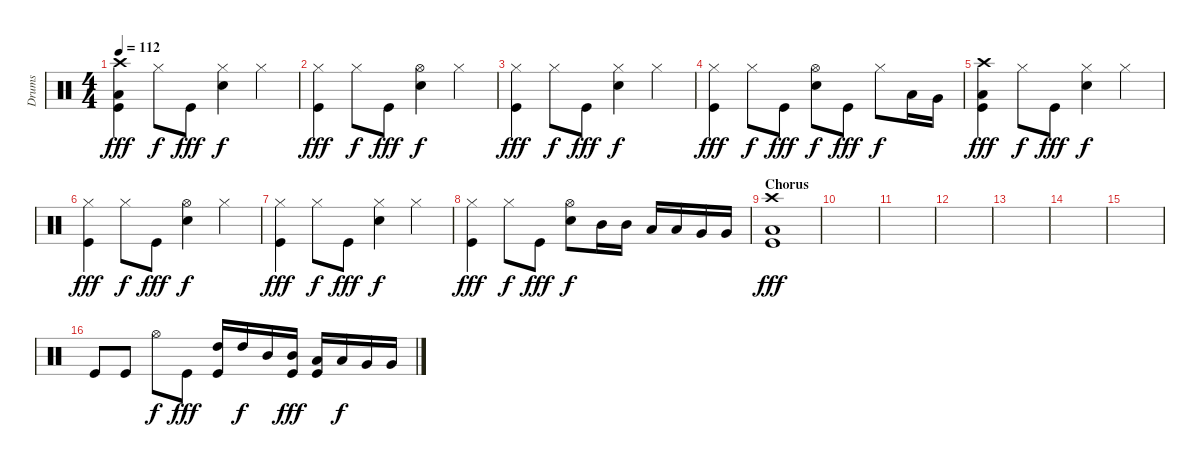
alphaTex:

\track ("Drums" "Drums") {instrument percussion}
\staff {score}
\articulation defaults
\ts (4 4)
\tempo 112
\clef neutral
\ks c
("Crash high (hit)" "Low Floor Tom (hit)" "Kick (hit)").4{dy fff} "Hi-Hat (closed)".8{dy f} "Kick (hit)".8{dy fff} ("Hi-Hat (closed)" "Snare (hit) 2").4{dy f} "Hi-Hat (closed)".4 |
("Hi-Hat (closed)" "Kick (hit)").4{dy fff} "Hi-Hat (closed)".8{dy f} "Kick (hit)".8{dy fff} ("Hi-Hat (open)" "Snare (hit) 2").4{dy f} "Hi-Hat (closed)".4 |
("Hi-Hat (closed)" "Kick (hit)").4{dy fff} "Hi-Hat (closed)".8{dy f} "Kick (hit)".8{dy fff} ("Hi-Hat (closed)" "Snare (hit) 2").4{dy f} "Hi-Hat (closed)".4 |
("Hi-Hat (closed)" "Kick (hit)").4{dy fff} "Hi-Hat (closed)".8{dy f} "Kick (hit)".8{dy fff} ("Hi-Hat (open)" "Snare (hit) 2").8{dy f} "Kick (hit)".8{dy fff} "Hi-Hat (closed)".8{dy f} "Low Tom (hit)".16 "Very Low Tom (hit)".16 |
("Crash high (hit)" "Low Floor Tom (hit)" "Kick (hit)").4{dy fff} "Hi-Hat (closed)".8{dy f} "Kick (hit)".8{dy fff} ("Hi-Hat (closed)" "Snare (hit) 2").4{dy f} "Hi-Hat (closed)".4 |
("Hi-Hat (closed)" "Kick (hit)").4{dy fff} "Hi-Hat (closed)".8{dy f} "Kick (hit)".8{dy fff} ("Hi-Hat (open)" "Snare (hit) 2").4{dy f} "Hi-Hat (closed)".4 |
("Hi-Hat (closed)" "Kick (hit)").4{dy fff} "Hi-Hat (closed)".8{dy f} "Kick (hit)".8{dy fff} ("Hi-Hat (closed)" "Snare (hit) 2").4{dy f} "Hi-Hat (closed)".4 |
("Hi-Hat (closed)" "Kick (hit)").4{dy fff} "Hi-Hat (closed)".8{dy f} "Kick (hit)".8{dy fff} ("Hi-Hat (open)" "Snare (hit) 2").8{dy f} "Mid Tom (hit)".16 "Mid Tom (hit)".16 "Low Tom (hit)".16 "Low Tom (hit)".16 "Very Low Tom (hit)".16 "Very Low Tom (hit)".16 |
\section ("" "Chorus")
("Crash high (hit)" "Low Floor Tom (hit)" "Kick (hit)").1{dy fff} |
|
|
|
|
|
|
"Kick (hit)".8 "Kick (hit)".8 "Hi-Hat (open)".8{dy f} "Kick (hit)".8{dy fff} ("High Tom (hit)" "Kick (hit)").16 "High Tom (hit)".16{dy f} "Mid Tom (hit)".16 ("Mid Tom (hit)" "Kick (hit)").16{dy fff} ("Low Tom (hit)" "Kick (hit)").16 "Low Tom (hit)".16{dy f} "Very Low Tom (hit)".16 "Very Low Tom (hit)".16
